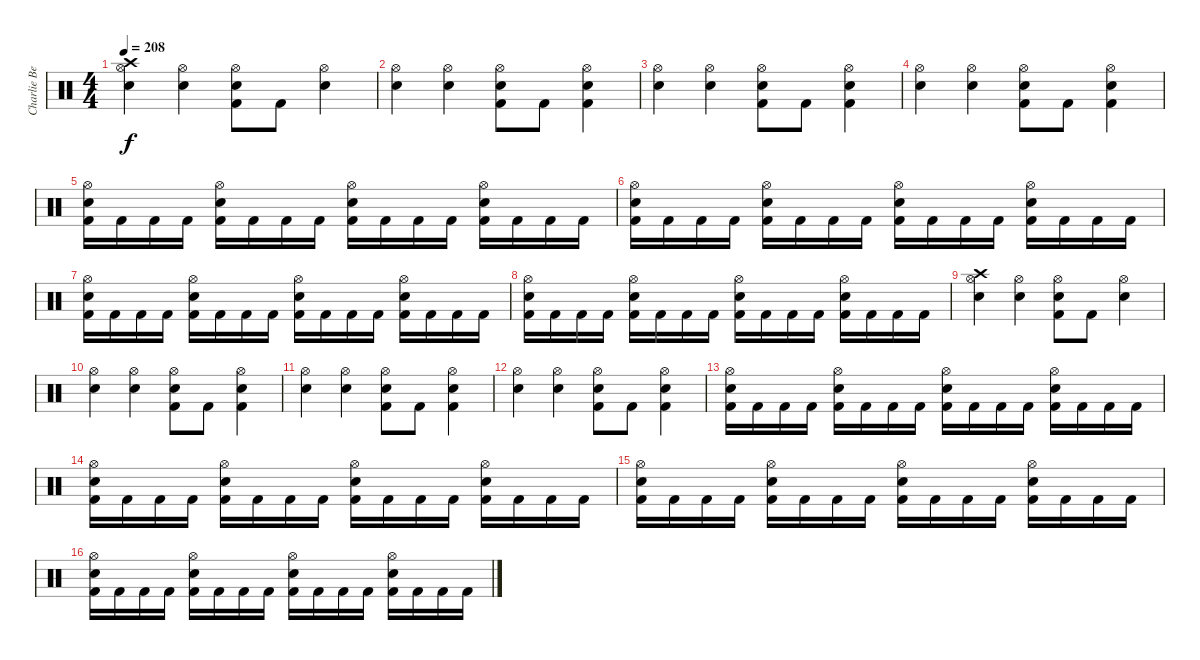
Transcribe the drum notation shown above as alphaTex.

\track ("Charlie Benate" "Charlie Be") {instrument percussion}
\staff {score}
\articulation defaults
\ts (4 4)
\tempo 208
\clef neutral
\ks c
("Hi-Hat (open)" "Electric Snare (hit)" "Crash high (hit)").4{dy f} ("Hi-Hat (open)" "Electric Snare (hit)").4 ("Hi-Hat (open)" "Electric Snare (hit)" "Kick (hit) 2").8 "Kick (hit) 2".8 ("Hi-Hat (open)" "Electric Snare (hit)").4 |
("Hi-Hat (open)" "Electric Snare (hit)").4 ("Hi-Hat (open)" "Electric Snare (hit)").4 ("Hi-Hat (open)" "Electric Snare (hit)" "Kick (hit) 2").8 "Kick (hit) 2".8 ("Hi-Hat (open)" "Electric Snare (hit)" "Kick (hit) 2").4 |
("Hi-Hat (open)" "Electric Snare (hit)").4 ("Hi-Hat (open)" "Electric Snare (hit)").4 ("Hi-Hat (open)" "Electric Snare (hit)" "Kick (hit) 2").8 "Kick (hit) 2".8 ("Hi-Hat (open)" "Electric Snare (hit)" "Kick (hit) 2").4 |
("Hi-Hat (open)" "Electric Snare (hit)").4 ("Hi-Hat (open)" "Electric Snare (hit)").4 ("Hi-Hat (open)" "Electric Snare (hit)" "Kick (hit) 2").8 "Kick (hit) 2".8 ("Hi-Hat (open)" "Electric Snare (hit)" "Kick (hit) 2").4 |
("Hi-Hat (open)" "Electric Snare (hit)" "Kick (hit) 2").16 "Kick (hit) 2".16 "Kick (hit) 2".16 "Kick (hit) 2".16 ("Hi-Hat (open)" "Electric Snare (hit)" "Kick (hit) 2").16 "Kick (hit) 2".16 "Kick (hit) 2".16 "Kick (hit) 2".16 ("Hi-Hat (open)" "Electric Snare (hit)" "Kick (hit) 2").16 "Kick (hit) 2".16 "Kick (hit) 2".16 "Kick (hit) 2".16 ("Hi-Hat (open)" "Electric Snare (hit)" "Kick (hit) 2").16 "Kick (hit) 2".16 "Kick (hit) 2".16 "Kick (hit) 2".16 |
("Hi-Hat (open)" "Electric Snare (hit)" "Kick (hit) 2").16 "Kick (hit) 2".16 "Kick (hit) 2".16 "Kick (hit) 2".16 ("Hi-Hat (open)" "Electric Snare (hit)" "Kick (hit) 2").16 "Kick (hit) 2".16 "Kick (hit) 2".16 "Kick (hit) 2".16 ("Hi-Hat (open)" "Electric Snare (hit)" "Kick (hit) 2").16 "Kick (hit) 2".16 "Kick (hit) 2".16 "Kick (hit) 2".16 ("Hi-Hat (open)" "Electric Snare (hit)" "Kick (hit) 2").16 "Kick (hit) 2".16 "Kick (hit) 2".16 "Kick (hit) 2".16 |
("Hi-Hat (open)" "Electric Snare (hit)" "Kick (hit) 2").16 "Kick (hit) 2".16 "Kick (hit) 2".16 "Kick (hit) 2".16 ("Hi-Hat (open)" "Electric Snare (hit)" "Kick (hit) 2").16 "Kick (hit) 2".16 "Kick (hit) 2".16 "Kick (hit) 2".16 ("Hi-Hat (open)" "Electric Snare (hit)" "Kick (hit) 2").16 "Kick (hit) 2".16 "Kick (hit) 2".16 "Kick (hit) 2".16 ("Hi-Hat (open)" "Electric Snare (hit)" "Kick (hit) 2").16 "Kick (hit) 2".16 "Kick (hit) 2".16 "Kick (hit) 2".16 |
("Hi-Hat (open)" "Electric Snare (hit)" "Kick (hit) 2").16 "Kick (hit) 2".16 "Kick (hit) 2".16 "Kick (hit) 2".16 ("Hi-Hat (open)" "Electric Snare (hit)" "Kick (hit) 2").16 "Kick (hit) 2".16 "Kick (hit) 2".16 "Kick (hit) 2".16 ("Hi-Hat (open)" "Electric Snare (hit)" "Kick (hit) 2").16 "Kick (hit) 2".16 "Kick (hit) 2".16 "Kick (hit) 2".16 ("Hi-Hat (open)" "Electric Snare (hit)" "Kick (hit) 2").16 "Kick (hit) 2".16 "Kick (hit) 2".16 "Kick (hit) 2".16 |
("Hi-Hat (open)" "Electric Snare (hit)" "Crash high (hit)").4 ("Hi-Hat (open)" "Electric Snare (hit)").4 ("Hi-Hat (open)" "Electric Snare (hit)" "Kick (hit) 2").8 "Kick (hit) 2".8 ("Hi-Hat (open)" "Electric Snare (hit)").4 |
("Hi-Hat (open)" "Electric Snare (hit)").4 ("Hi-Hat (open)" "Electric Snare (hit)").4 ("Hi-Hat (open)" "Electric Snare (hit)" "Kick (hit) 2").8 "Kick (hit) 2".8 ("Hi-Hat (open)" "Electric Snare (hit)" "Kick (hit) 2").4 |
("Hi-Hat (open)" "Electric Snare (hit)").4 ("Hi-Hat (open)" "Electric Snare (hit)").4 ("Hi-Hat (open)" "Electric Snare (hit)" "Kick (hit) 2").8 "Kick (hit) 2".8 ("Hi-Hat (open)" "Electric Snare (hit)" "Kick (hit) 2").4 |
("Hi-Hat (open)" "Electric Snare (hit)").4 ("Hi-Hat (open)" "Electric Snare (hit)").4 ("Hi-Hat (open)" "Electric Snare (hit)" "Kick (hit) 2").8 "Kick (hit) 2".8 ("Hi-Hat (open)" "Electric Snare (hit)" "Kick (hit) 2").4 |
("Hi-Hat (open)" "Electric Snare (hit)" "Kick (hit) 2").16 "Kick (hit) 2".16 "Kick (hit) 2".16 "Kick (hit) 2".16 ("Hi-Hat (open)" "Electric Snare (hit)" "Kick (hit) 2").16 "Kick (hit) 2".16 "Kick (hit) 2".16 "Kick (hit) 2".16 ("Hi-Hat (open)" "Electric Snare (hit)" "Kick (hit) 2").16 "Kick (hit) 2".16 "Kick (hit) 2".16 "Kick (hit) 2".16 ("Hi-Hat (open)" "Electric Snare (hit)" "Kick (hit) 2").16 "Kick (hit) 2".16 "Kick (hit) 2".16 "Kick (hit) 2".16 |
("Hi-Hat (open)" "Electric Snare (hit)" "Kick (hit) 2").16 "Kick (hit) 2".16 "Kick (hit) 2".16 "Kick (hit) 2".16 ("Hi-Hat (open)" "Electric Snare (hit)" "Kick (hit) 2").16 "Kick (hit) 2".16 "Kick (hit) 2".16 "Kick (hit) 2".16 ("Hi-Hat (open)" "Electric Snare (hit)" "Kick (hit) 2").16 "Kick (hit) 2".16 "Kick (hit) 2".16 "Kick (hit) 2".16 ("Hi-Hat (open)" "Electric Snare (hit)" "Kick (hit) 2").16 "Kick (hit) 2".16 "Kick (hit) 2".16 "Kick (hit) 2".16 |
("Hi-Hat (open)" "Electric Snare (hit)" "Kick (hit) 2").16 "Kick (hit) 2".16 "Kick (hit) 2".16 "Kick (hit) 2".16 ("Hi-Hat (open)" "Electric Snare (hit)" "Kick (hit) 2").16 "Kick (hit) 2".16 "Kick (hit) 2".16 "Kick (hit) 2".16 ("Hi-Hat (open)" "Electric Snare (hit)" "Kick (hit) 2").16 "Kick (hit) 2".16 "Kick (hit) 2".16 "Kick (hit) 2".16 ("Hi-Hat (open)" "Electric Snare (hit)" "Kick (hit) 2").16 "Kick (hit) 2".16 "Kick (hit) 2".16 "Kick (hit) 2".16 |
("Hi-Hat (open)" "Electric Snare (hit)" "Kick (hit) 2").16 "Kick (hit) 2".16 "Kick (hit) 2".16 "Kick (hit) 2".16 ("Hi-Hat (open)" "Electric Snare (hit)" "Kick (hit) 2").16 "Kick (hit) 2".16 "Kick (hit) 2".16 "Kick (hit) 2".16 ("Hi-Hat (open)" "Electric Snare (hit)" "Kick (hit) 2").16 "Kick (hit) 2".16 "Kick (hit) 2".16 "Kick (hit) 2".16 ("Hi-Hat (open)" "Electric Snare (hit)" "Kick (hit) 2").16 "Kick (hit) 2".16 "Kick (hit) 2".16 "Kick (hit) 2".16
